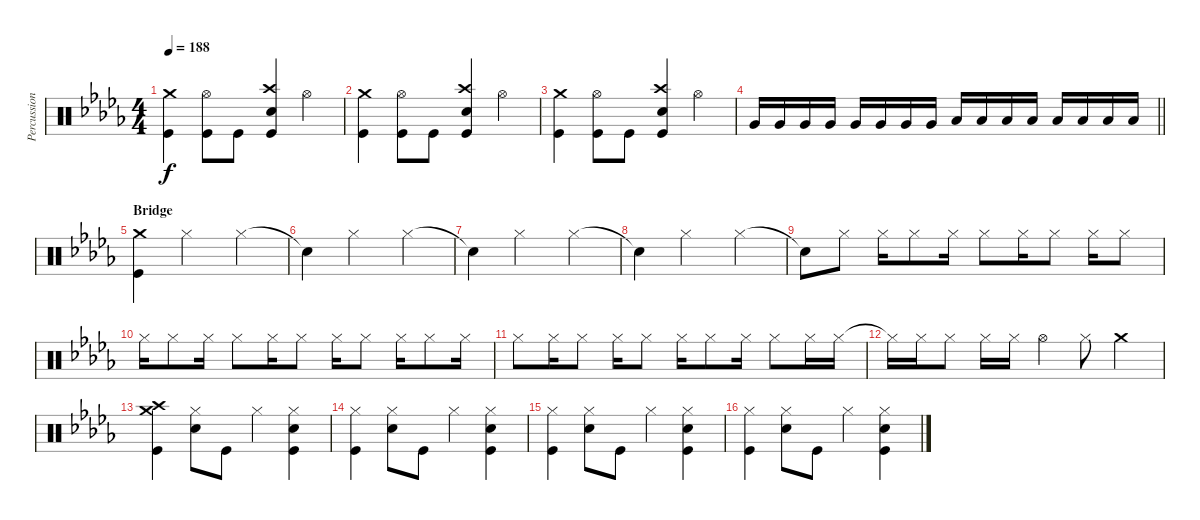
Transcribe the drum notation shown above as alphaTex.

\track ("Percussion" "Percussion") {instrument percussion}
\staff {score}
\articulation defaults
\ts (4 4)
\tempo 188
\clef neutral
\ks db
("Crash medium (hit)" "Kick (hit)").4{dy f} ("Hi-Hat (open)" "Kick (hit)").8 "Kick (hit)".8 ("Crash high (hit)" "Electric Snare (hit)" "Kick (hit)").4 "Hi-Hat (open)".4 |
("Crash medium (hit)" "Kick (hit)").4 ("Hi-Hat (open)" "Kick (hit)").8 "Kick (hit)".8 ("Crash high (hit)" "Electric Snare (hit)" "Kick (hit)").4 "Hi-Hat (open)".4 |
("Crash medium (hit)" "Kick (hit)").4 ("Hi-Hat (open)" "Kick (hit)").8 "Kick (hit)".8 ("Crash high (hit)" "Electric Snare (hit)" "Kick (hit)").4 "Hi-Hat (open)".4 |
\barLineRight lightlight "Very Low Tom (hit)".16 "Very Low Tom (hit)".16 "Very Low Tom (hit)".16 "Very Low Tom (hit)".16 "Very Low Tom (hit)".16 "Very Low Tom (hit)".16 "Very Low Tom (hit)".16 "Very Low Tom (hit)".16 "Low Floor Tom (hit)".16 "Low Floor Tom (hit)".16 "Low Floor Tom (hit)".16 "Low Floor Tom (hit)".16 "Low Floor Tom (hit)".16 "Low Floor Tom (hit)".16 "Low Floor Tom (hit)".16 "Low Floor Tom (hit)".16
|
\section ("" "Bridge")
("Crash medium (hit)" "Kick (hit)").4 "Hi-Hat (closed)".2 "Hi-Hat (closed)".4 |
"Snare (hit)"{t}.4 "Hi-Hat (closed)".2 "Hi-Hat (closed)".4 |
"Snare (hit)"{t}.4 "Hi-Hat (closed)".2 "Hi-Hat (closed)".4 |
"Snare (hit)"{t}.4 "Hi-Hat (closed)".2 "Hi-Hat (closed)".4 |
"Snare (hit)"{t}.8 "Hi-Hat (closed)".8 "Hi-Hat (closed)".16 "Hi-Hat (closed)".8 "Hi-Hat (closed)".16 "Hi-Hat (closed)".8 "Hi-Hat (closed)".16 "Hi-Hat (closed)".8 "Hi-Hat (closed)".16 "Hi-Hat (closed)".8 |
"Hi-Hat (closed)".16 "Hi-Hat (closed)".8 "Hi-Hat (closed)".16 "Hi-Hat (closed)".8 "Hi-Hat (closed)".16 "Hi-Hat (closed)".8 "Hi-Hat (closed)".16 "Hi-Hat (closed)".8 "Hi-Hat (closed)".16 "Hi-Hat (closed)".8 "Hi-Hat (closed)".16 |
"Hi-Hat (closed)".8 "Hi-Hat (closed)".16 "Hi-Hat (closed)".8 "Hi-Hat (closed)".16 "Hi-Hat (closed)".8 "Hi-Hat (closed)".16 "Hi-Hat (closed)".8 "Hi-Hat (closed)".16 "Hi-Hat (closed)".8 "Hi-Hat (closed)".16 "Hi-Hat (closed)".16 |
"Hi-Hat (closed)"{t}.16 "Hi-Hat (closed)".16 "Hi-Hat (closed)".8 "Hi-Hat (closed)".16 "Hi-Hat (closed)".16 "Hi-Hat (open)".4 "Hi-Hat (closed)".8 "Crash medium (hit)".4 |
("Crash high (hit)" "Crash medium (hit)" "Kick (hit)").4 ("Hi-Hat (closed)" "Electric Snare (hit)").8 "Kick (hit)".8 "Hi-Hat (closed)".4 ("Hi-Hat (closed)" "Electric Snare (hit)" "Kick (hit)").4 |
("Hi-Hat (closed)" "Kick (hit)").4 ("Hi-Hat (closed)" "Electric Snare (hit)").8 "Kick (hit)".8 "Hi-Hat (closed)".4 ("Hi-Hat (closed)" "Electric Snare (hit)" "Kick (hit)").4 |
("Hi-Hat (closed)" "Kick (hit)").4 ("Hi-Hat (closed)" "Electric Snare (hit)").8 "Kick (hit)".8 "Hi-Hat (closed)".4 ("Hi-Hat (closed)" "Electric Snare (hit)" "Kick (hit)").4 |
("Hi-Hat (closed)" "Kick (hit)").4 ("Hi-Hat (closed)" "Electric Snare (hit)").8 "Kick (hit)".8 "Hi-Hat (closed)".4 ("Hi-Hat (closed)" "Electric Snare (hit)" "Kick (hit)").4
